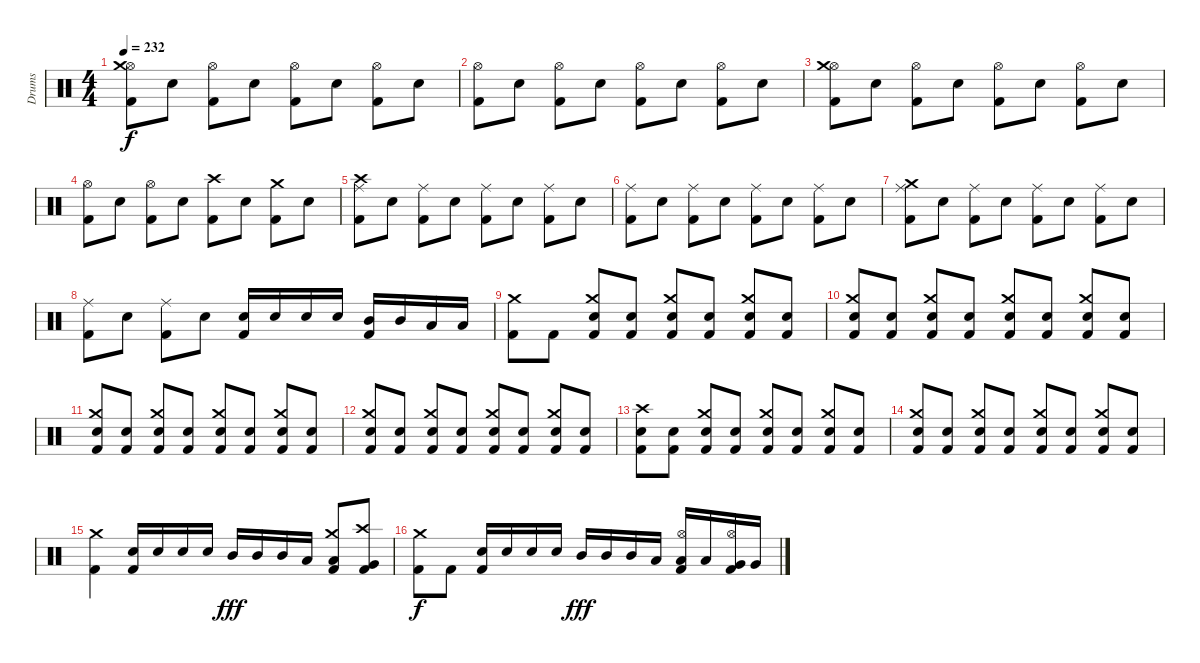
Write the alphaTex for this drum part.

\track ("Drums" "Drums") {instrument percussion}
\staff {score}
\articulation defaults
\ts (4 4)
\tempo 232
\clef neutral
\ks c
("Kick (hit) 2" "Hi-Hat (open)" "Crash medium (hit)").8{dy f} "Snare (hit) 2".8 ("Kick (hit) 2" "Hi-Hat (open)").8 "Snare (hit) 2".8 ("Kick (hit) 2" "Hi-Hat (open)").8 "Snare (hit) 2".8 ("Kick (hit) 2" "Hi-Hat (open)").8 "Snare (hit) 2".8 |
("Kick (hit) 2" "Hi-Hat (open)").8 "Snare (hit) 2".8 ("Kick (hit) 2" "Hi-Hat (open)").8 "Snare (hit) 2".8 ("Kick (hit) 2" "Hi-Hat (open)").8 "Snare (hit) 2".8 ("Kick (hit) 2" "Hi-Hat (open)").8 "Snare (hit) 2".8 |
("Kick (hit) 2" "Hi-Hat (open)" "Crash medium (hit)").8 "Snare (hit) 2".8 ("Kick (hit) 2" "Hi-Hat (open)").8 "Snare (hit) 2".8 ("Kick (hit) 2" "Hi-Hat (open)").8 "Snare (hit) 2".8 ("Kick (hit) 2" "Hi-Hat (open)").8 "Snare (hit) 2".8 |
("Kick (hit) 2" "Hi-Hat (open)").8 "Snare (hit) 2".8 ("Kick (hit) 2" "Hi-Hat (open)").8 "Snare (hit) 2".8 ("Kick (hit) 2" "Crash high (hit)").8 "Snare (hit) 2".8 ("Kick (hit) 2" "Crash medium (hit)").8 "Snare (hit) 2".8 |
("Kick (hit) 2" "Ride (middle)" "Crash high (hit)").8 "Snare (hit) 2".8 ("Kick (hit) 2" "Ride (middle)").8 "Snare (hit) 2".8 ("Kick (hit) 2" "Ride (middle)").8 "Snare (hit) 2".8 ("Kick (hit) 2" "Ride (middle)").8 "Snare (hit) 2".8 |
("Kick (hit) 2" "Ride (middle)").8 "Snare (hit) 2".8 ("Kick (hit) 2" "Ride (middle)").8 "Snare (hit) 2".8 ("Kick (hit) 2" "Ride (middle)").8 "Snare (hit) 2".8 ("Kick (hit) 2" "Ride (middle)").8 "Snare (hit) 2".8 |
("Kick (hit) 2" "Ride (middle)" "Crash medium (hit)").8 "Snare (hit) 2".8 ("Kick (hit) 2" "Ride (middle)").8 "Snare (hit) 2".8 ("Kick (hit) 2" "Ride (middle)").8 "Snare (hit) 2".8 ("Kick (hit) 2" "Ride (middle)").8 "Snare (hit) 2".8 |
("Kick (hit) 2" "Ride (middle)").8 "Snare (hit) 2".8 ("Kick (hit) 2" "Ride (middle)").8 "Snare (hit) 2".8 ("Kick (hit) 2" "Snare (hit) 2").16 "Snare (hit) 2".16 "Snare (hit) 2".16 "Snare (hit) 2".16 ("Kick (hit) 2" "Mid Tom (hit)").16 "Mid Tom (hit)".16 "Low Tom (hit)".16 "Low Tom (hit)".16 |
("Kick (hit) 2" "Crash medium (hit)").8 "Kick (hit) 2".8 ("Kick (hit) 2" "Snare (hit) 2" "Crash medium (hit)").8 ("Kick (hit) 2" "Snare (hit) 2").8 ("Kick (hit) 2" "Snare (hit) 2" "Crash medium (hit)").8 ("Kick (hit) 2" "Snare (hit) 2").8 ("Kick (hit) 2" "Snare (hit) 2" "Crash medium (hit)").8 ("Kick (hit) 2" "Snare (hit) 2").8 |
("Kick (hit) 2" "Snare (hit) 2" "Crash medium (hit)").8 ("Kick (hit) 2" "Snare (hit) 2").8 ("Kick (hit) 2" "Snare (hit) 2" "Crash medium (hit)").8 ("Kick (hit) 2" "Snare (hit) 2").8 ("Kick (hit) 2" "Snare (hit) 2" "Crash medium (hit)").8 ("Kick (hit) 2" "Snare (hit) 2").8 ("Kick (hit) 2" "Snare (hit) 2" "Crash medium (hit)").8 ("Kick (hit) 2" "Snare (hit) 2").8 |
("Kick (hit) 2" "Snare (hit) 2" "Crash medium (hit)").8 ("Kick (hit) 2" "Snare (hit) 2").8 ("Kick (hit) 2" "Snare (hit) 2" "Crash medium (hit)").8 ("Kick (hit) 2" "Snare (hit) 2").8 ("Kick (hit) 2" "Snare (hit) 2" "Crash medium (hit)").8 ("Kick (hit) 2" "Snare (hit) 2").8 ("Kick (hit) 2" "Snare (hit) 2" "Crash medium (hit)").8 ("Kick (hit) 2" "Snare (hit) 2").8 |
("Kick (hit) 2" "Snare (hit) 2" "Crash medium (hit)").8 ("Kick (hit) 2" "Snare (hit) 2").8 ("Kick (hit) 2" "Snare (hit) 2" "Crash medium (hit)").8 ("Kick (hit) 2" "Snare (hit) 2").8 ("Kick (hit) 2" "Snare (hit) 2" "Crash medium (hit)").8 ("Kick (hit) 2" "Snare (hit) 2").8 ("Kick (hit) 2" "Snare (hit) 2" "Crash medium (hit)").8 ("Kick (hit) 2" "Snare (hit) 2").8 |
("Kick (hit) 2" "Snare (hit) 2" "Crash high (hit)").8 ("Kick (hit) 2" "Snare (hit) 2").8 ("Kick (hit) 2" "Snare (hit) 2" "Crash medium (hit)").8 ("Kick (hit) 2" "Snare (hit) 2").8 ("Kick (hit) 2" "Snare (hit) 2" "Crash medium (hit)").8 ("Kick (hit) 2" "Snare (hit) 2").8 ("Kick (hit) 2" "Snare (hit) 2" "Crash medium (hit)").8 ("Kick (hit) 2" "Snare (hit) 2").8 |
("Kick (hit) 2" "Snare (hit) 2" "Crash medium (hit)").8 ("Kick (hit) 2" "Snare (hit) 2").8 ("Kick (hit) 2" "Snare (hit) 2" "Crash medium (hit)").8 ("Kick (hit) 2" "Snare (hit) 2").8 ("Kick (hit) 2" "Snare (hit) 2" "Crash medium (hit)").8 ("Kick (hit) 2" "Snare (hit) 2").8 ("Kick (hit) 2" "Snare (hit) 2" "Crash medium (hit)").8 ("Kick (hit) 2" "Snare (hit) 2").8 |
("Kick (hit) 2" "Crash medium (hit)").4 ("Kick (hit) 2" "Electric Snare (hit)").16 "Electric Snare (hit)".16 "Electric Snare (hit)".16 "Electric Snare (hit)".16 "Mid Tom (hit)".16{dy fff} "Mid Tom (hit)".16 "Mid Tom (hit)".16 "Low Tom (hit)".16 ("Kick (hit) 2" "Low Tom (hit)" "Crash medium (hit)").8 ("Kick (hit) 2" "Very Low Tom (hit)" "Crash high (hit)").8 |
("Kick (hit) 2" "Crash medium (hit)").8{dy f} "Kick (hit) 2".8 ("Kick (hit) 2" "Electric Snare (hit)").16 "Electric Snare (hit)".16 "Electric Snare (hit)".16 "Electric Snare (hit)".16 "Mid Tom (hit)".16{dy fff} "Mid Tom (hit)".16 "Mid Tom (hit)".16 "Low Tom (hit)".16 ("Kick (hit) 2" "Low Tom (hit)" "Hi-Hat (open)").16 "Low Tom (hit)".16 ("Kick (hit) 2" "Very Low Tom (hit)" "Hi-Hat (open)").16 "Very Low Tom (hit)".16
